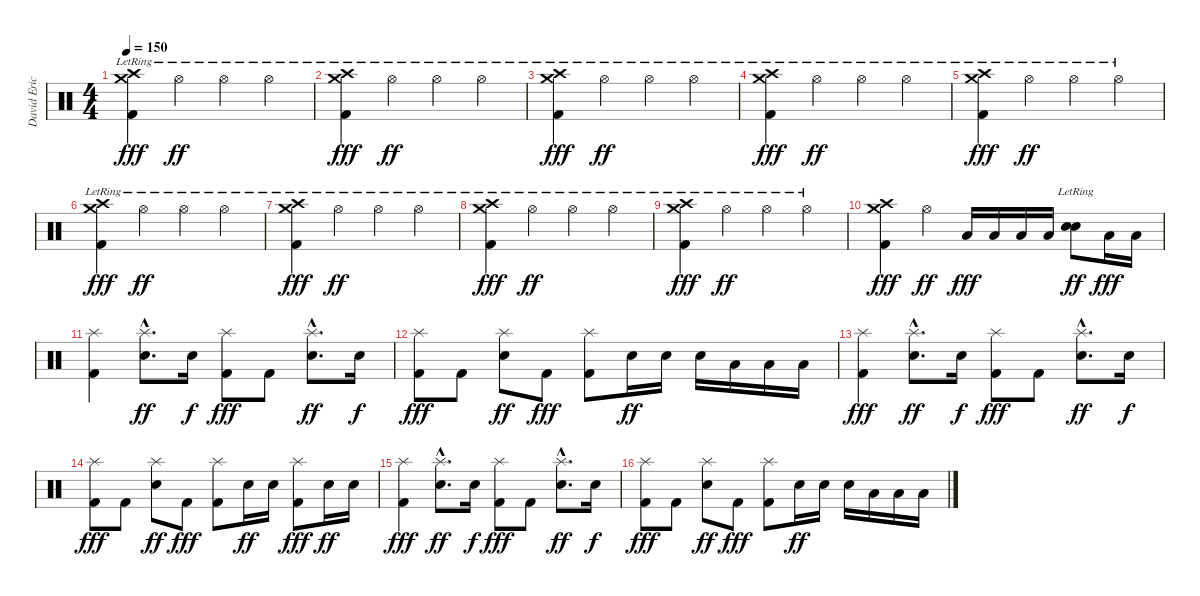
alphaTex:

\track ("David Eric Grohl" "David Eric") {instrument percussion}
\staff {score}
\articulation defaults
\ts (4 4)
\tempo 150
\clef neutral
\ks c
("Crash medium (hit)"{lr} "Crash high (hit)"{lr} "Kick (hit) 2").4{dy fff} "Hi-Hat (open)"{lr}.4{dy ff} "Hi-Hat (open)"{lr}.4 "Hi-Hat (open)"{lr}.4 |
("Crash medium (hit)"{lr} "Crash high (hit)"{lr} "Kick (hit) 2").4{dy fff} "Hi-Hat (open)"{lr}.4{dy ff} "Hi-Hat (open)"{lr}.4 "Hi-Hat (open)"{lr}.4 |
("Crash medium (hit)"{lr} "Crash high (hit)"{lr} "Kick (hit) 2").4{dy fff} "Hi-Hat (open)"{lr}.4{dy ff} "Hi-Hat (open)"{lr}.4 "Hi-Hat (open)"{lr}.4 |
("Crash medium (hit)"{lr} "Crash high (hit)"{lr} "Kick (hit) 2").4{dy fff} "Hi-Hat (open)"{lr}.4{dy ff} "Hi-Hat (open)"{lr}.4 "Hi-Hat (open)"{lr}.4 |
("Crash medium (hit)"{lr} "Crash high (hit)"{lr} "Kick (hit) 2").4{dy fff} "Hi-Hat (open)"{lr}.4{dy ff} "Hi-Hat (open)"{lr}.4 "Hi-Hat (open)"{lr}.4 |
("Crash medium (hit)"{lr} "Crash high (hit)"{lr} "Kick (hit) 2").4{dy fff} "Hi-Hat (open)"{lr}.4{dy ff} "Hi-Hat (open)"{lr}.4 "Hi-Hat (open)"{lr}.4 |
("Crash medium (hit)"{lr} "Crash high (hit)"{lr} "Kick (hit) 2").4{dy fff} "Hi-Hat (open)"{lr}.4{dy ff} "Hi-Hat (open)"{lr}.4 "Hi-Hat (open)"{lr}.4 |
("Crash medium (hit)"{lr} "Crash high (hit)"{lr} "Kick (hit) 2").4{dy fff} "Hi-Hat (open)"{lr}.4{dy ff} "Hi-Hat (open)"{lr}.4 "Hi-Hat (open)"{lr}.4 |
("Crash medium (hit)"{lr} "Crash high (hit)"{lr} "Kick (hit) 2").4{dy fff} "Hi-Hat (open)"{lr}.4{dy ff} "Hi-Hat (open)"{lr}.4 "Hi-Hat (open)"{lr}.4 |
("Crash medium (hit)" "Crash high (hit)" "Kick (hit) 2").4{dy fff} "Hi-Hat (open)".4{dy ff} "Low Tom (hit)".16{dy fff} "Low Tom (hit)".16 "Low Tom (hit)".16 "Low Tom (hit)".16 ("Electric Snare (hit)"{lr} "Electric Snare (hit)"{lr}).8{dy ff} "Low Tom (hit)".16{dy fff} "Low Tom (hit)".16 |
("Splash (hit)" "Kick (hit) 2").4 ("Splash (hit)"{hac} "Electric Snare (hit)"{hac}).8{d dy ff} "Electric Snare (hit)".16{dy f} ("Splash (hit)" "Kick (hit) 2").8{dy fff} "Kick (hit) 2".8 ("Splash (hit)"{hac} "Electric Snare (hit)"{hac}).8{d dy ff} "Electric Snare (hit)".16{dy f} |
("Splash (hit)" "Kick (hit) 2").8{dy fff} "Kick (hit) 2".8 ("Splash (hit)" "Electric Snare (hit)").8{dy ff} "Kick (hit) 2".8{dy fff} ("Splash (hit)" "Kick (hit) 2").8 "Electric Snare (hit)".16{dy ff} "Electric Snare (hit)".16 "Electric Snare (hit)".16 "Low Tom (hit)".16 "Low Tom (hit)".16 "Low Tom (hit)".16 |
("Splash (hit)" "Kick (hit) 2").4{dy fff} ("Splash (hit)"{hac} "Electric Snare (hit)"{hac}).8{d dy ff} "Electric Snare (hit)".16{dy f} ("Splash (hit)" "Kick (hit) 2").8{dy fff} "Kick (hit) 2".8 ("Splash (hit)"{hac} "Electric Snare (hit)"{hac}).8{d dy ff} "Electric Snare (hit)".16{dy f} |
("Splash (hit)" "Kick (hit) 2").8{dy fff} "Kick (hit) 2".8 ("Splash (hit)" "Electric Snare (hit)").8{dy ff} "Kick (hit) 2".8{dy fff} ("Splash (hit)" "Kick (hit) 2").8 "Electric Snare (hit)".16{dy ff} "Electric Snare (hit)".16 ("Splash (hit)" "Kick (hit) 2").8{dy fff} "Electric Snare (hit)".16{dy ff} "Electric Snare (hit)".16 |
("Splash (hit)" "Kick (hit) 2").4{dy fff} ("Splash (hit)"{hac} "Electric Snare (hit)"{hac}).8{d dy ff} "Electric Snare (hit)".16{dy f} ("Splash (hit)" "Kick (hit) 2").8{dy fff} "Kick (hit) 2".8 ("Splash (hit)"{hac} "Electric Snare (hit)"{hac}).8{d dy ff} "Electric Snare (hit)".16{dy f} |
("Splash (hit)" "Kick (hit) 2").8{dy fff} "Kick (hit) 2".8 ("Splash (hit)" "Electric Snare (hit)").8{dy ff} "Kick (hit) 2".8{dy fff} ("Splash (hit)" "Kick (hit) 2").8 "Electric Snare (hit)".16{dy ff} "Electric Snare (hit)".16 "Electric Snare (hit)".16 "Low Tom (hit)".16 "Low Tom (hit)".16 "Low Tom (hit)".16
